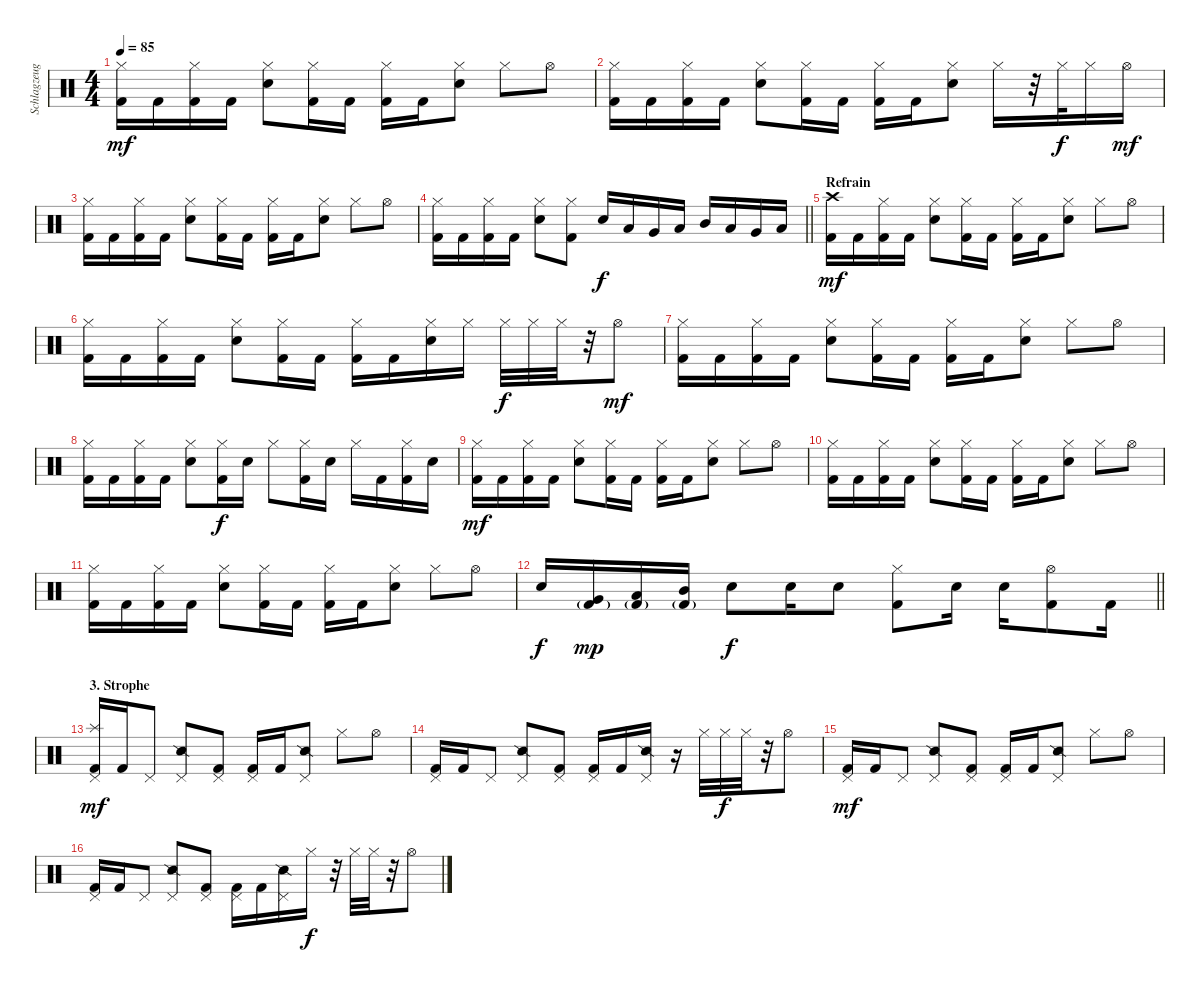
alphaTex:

\track ("Schlagzeug" "Schlagzeug") {instrument percussion}
\staff {score}
\articulation defaults
\ts (4 4)
\tempo 85
\clef neutral
\ks c
("Hi-Hat (closed)" "Kick (hit) 2").16{dy mf} "Kick (hit) 2".16 ("Hi-Hat (closed)" "Kick (hit) 2").16 "Kick (hit) 2".16 ("Hi-Hat (closed)" "Snare (hit) 2").8 ("Hi-Hat (closed)" "Kick (hit) 2").16 "Kick (hit) 2".16 ("Hi-Hat (closed)" "Kick (hit) 2").16 "Kick (hit) 2".16 ("Hi-Hat (closed)" "Snare (hit) 2").8 "Hi-Hat (closed)".8 "Hi-Hat (open)".8 |
("Hi-Hat (closed)" "Kick (hit) 2").16 "Kick (hit) 2".16 ("Hi-Hat (closed)" "Kick (hit) 2").16 "Kick (hit) 2".16 ("Hi-Hat (closed)" "Snare (hit) 2").8 ("Hi-Hat (closed)" "Kick (hit) 2").16 "Kick (hit) 2".16 ("Hi-Hat (closed)" "Kick (hit) 2").16 "Kick (hit) 2".16 ("Hi-Hat (closed)" "Snare (hit) 2").8 "Hi-Hat (closed)".16 r.32 "Hi-Hat (closed)".32{dy f} "Hi-Hat (closed)".16 "Hi-Hat (open)".16{dy mf} |
("Hi-Hat (closed)" "Kick (hit) 2").16 "Kick (hit) 2".16 ("Hi-Hat (closed)" "Kick (hit) 2").16 "Kick (hit) 2".16 ("Hi-Hat (closed)" "Snare (hit) 2").8 ("Hi-Hat (closed)" "Kick (hit) 2").16 "Kick (hit) 2".16 ("Hi-Hat (closed)" "Kick (hit) 2").16 "Kick (hit) 2".16 ("Hi-Hat (closed)" "Snare (hit) 2").8 "Hi-Hat (closed)".8 "Hi-Hat (open)".8 |
\barLineRight lightlight
("Hi-Hat (closed)" "Kick (hit) 2").16 "Kick (hit) 2".16 ("Hi-Hat (closed)" "Kick (hit) 2").16 "Kick (hit) 2".16 ("Hi-Hat (closed)" "Snare (hit) 2").8 ("Hi-Hat (closed)" "Kick (hit) 2").8 "Snare (hit) 2".16{dy f} "Low Tom (hit)".16 "Very Low Tom (hit)".16 "Low Floor Tom (hit)".16 "Mid Tom (hit)".16 "Low Tom (hit)".16 "Very Low Tom (hit)".16 "Low Floor Tom (hit)".16 |
\section ("" "Refrain")
("Crash high (hit)" "Kick (hit) 2").16{dy mf} "Kick (hit) 2".16 ("Hi-Hat (closed)" "Kick (hit) 2").16 "Kick (hit) 2".16 ("Hi-Hat (closed)" "Snare (hit) 2").8 ("Hi-Hat (closed)" "Kick (hit) 2").16 "Kick (hit) 2".16 ("Hi-Hat (closed)" "Kick (hit) 2").16 "Kick (hit) 2".16 ("Hi-Hat (closed)" "Snare (hit) 2").8 "Hi-Hat (closed)".8 "Hi-Hat (open)".8 |
("Hi-Hat (closed)" "Kick (hit) 2").16 "Kick (hit) 2".16 ("Hi-Hat (closed)" "Kick (hit) 2").16 "Kick (hit) 2".16 ("Hi-Hat (closed)" "Snare (hit) 2").8 ("Hi-Hat (closed)" "Kick (hit) 2").16 "Kick (hit) 2".16 ("Hi-Hat (closed)" "Kick (hit) 2").16 "Kick (hit) 2".16 ("Hi-Hat (closed)" "Snare (hit) 2").16 "Hi-Hat (closed)".16 "Hi-Hat (closed)".32{dy f} "Hi-Hat (closed)".32 "Hi-Hat (closed)".32 r.32 "Hi-Hat (open)".8{dy mf} |
("Hi-Hat (closed)" "Kick (hit) 2").16 "Kick (hit) 2".16 ("Hi-Hat (closed)" "Kick (hit) 2").16 "Kick (hit) 2".16 ("Hi-Hat (closed)" "Snare (hit) 2").8 ("Hi-Hat (closed)" "Kick (hit) 2").16 "Kick (hit) 2".16 ("Hi-Hat (closed)" "Kick (hit) 2").16 "Kick (hit) 2".16 ("Hi-Hat (closed)" "Snare (hit) 2").8 "Hi-Hat (closed)".8 "Hi-Hat (open)".8 |
("Hi-Hat (closed)" "Kick (hit) 2").16 "Kick (hit) 2".16 ("Hi-Hat (closed)" "Kick (hit) 2").16 "Kick (hit) 2".16 ("Hi-Hat (closed)" "Snare (hit) 2").8 ("Hi-Hat (closed)" "Kick (hit) 2").16{dy f} "Snare (hit) 2".16 "Hi-Hat (closed)".8 ("Hi-Hat (closed)" "Kick (hit) 2").16 "Snare (hit) 2".16 "Hi-Hat (closed)".16 "Kick (hit) 2".16 ("Hi-Hat (closed)" "Kick (hit) 2").16 "Snare (hit) 2".16 |
("Hi-Hat (closed)" "Kick (hit) 2").16{dy mf} "Kick (hit) 2".16 ("Hi-Hat (closed)" "Kick (hit) 2").16 "Kick (hit) 2".16 ("Hi-Hat (closed)" "Snare (hit) 2").8 ("Hi-Hat (closed)" "Kick (hit) 2").16 "Kick (hit) 2".16 ("Hi-Hat (closed)" "Kick (hit) 2").16 "Kick (hit) 2".16 ("Hi-Hat (closed)" "Snare (hit) 2").8 "Hi-Hat (closed)".8 "Hi-Hat (open)".8 |
("Hi-Hat (closed)" "Kick (hit) 2").16 "Kick (hit) 2".16 ("Hi-Hat (closed)" "Kick (hit) 2").16 "Kick (hit) 2".16 ("Hi-Hat (closed)" "Snare (hit) 2").8 ("Hi-Hat (closed)" "Kick (hit) 2").16 "Kick (hit) 2".16 ("Hi-Hat (closed)" "Kick (hit) 2").16 "Kick (hit) 2".16 ("Hi-Hat (closed)" "Snare (hit) 2").8 "Hi-Hat (closed)".8 "Hi-Hat (open)".8 |
("Hi-Hat (closed)" "Kick (hit) 2").16 "Kick (hit) 2".16 ("Hi-Hat (closed)" "Kick (hit) 2").16 "Kick (hit) 2".16 ("Hi-Hat (closed)" "Snare (hit) 2").8 ("Hi-Hat (closed)" "Kick (hit) 2").16 "Kick (hit) 2".16 ("Hi-Hat (closed)" "Kick (hit) 2").16 "Kick (hit) 2".16 ("Hi-Hat (closed)" "Snare (hit) 2").8 "Hi-Hat (closed)".8 "Hi-Hat (open)".8 |
\barLineRight lightlight "Snare (hit) 2".16{dy f}
("Very Low Tom (hit)" "Kick (hit) 2"{g}).16{dy mp} ("Low Tom (hit)" "Kick (hit) 2"{g}).16 ("Mid Tom (hit)" "Kick (hit) 2"{g}).16 "Snare (hit) 2".8{dy f} "Snare (hit) 2".16 "Snare (hit) 2".8 ("Hi-Hat (closed)" "Kick (hit) 2").8 "Snare (hit) 2".16 "Snare (hit) 2".16 ("Hi-Hat (open)" "Kick (hit) 2").8 "Kick (hit) 2".16 |
\section ("" "3. Strophe")
("Splash (hit)" "Pedal Hi-Hat (hit)" "Kick (hit) 2").16{dy mf} "Kick (hit) 2".16 "Pedal Hi-Hat (hit)".8 ("Pedal Hi-Hat (hit)" "Snare (side stick) 2").8 ("Pedal Hi-Hat (hit)" "Kick (hit) 2").8 ("Pedal Hi-Hat (hit)" "Kick (hit) 2").16 "Kick (hit) 2".16 ("Pedal Hi-Hat (hit)" "Snare (side stick) 2").8 "Hi-Hat (closed)".8 "Hi-Hat (open)".8 |
("Pedal Hi-Hat (hit)" "Kick (hit) 2").16 "Kick (hit) 2".16 "Pedal Hi-Hat (hit)".8 ("Pedal Hi-Hat (hit)" "Snare (side stick) 2").8 ("Pedal Hi-Hat (hit)" "Kick (hit) 2").8 ("Pedal Hi-Hat (hit)" "Kick (hit) 2").16 "Kick (hit) 2".16 ("Pedal Hi-Hat (hit)" "Snare (side stick) 2").16 r.16 "Hi-Hat (closed)".32 "Hi-Hat (closed)".32{dy f} "Hi-Hat (closed)".32 r.32 "Hi-Hat (open)".8 |
("Pedal Hi-Hat (hit)" "Kick (hit) 2").16{dy mf} "Kick (hit) 2".16 "Pedal Hi-Hat (hit)".8 ("Pedal Hi-Hat (hit)" "Snare (side stick) 2").8 ("Pedal Hi-Hat (hit)" "Kick (hit) 2").8 ("Pedal Hi-Hat (hit)" "Kick (hit) 2").16 "Kick (hit) 2".16 ("Pedal Hi-Hat (hit)" "Snare (side stick) 2").8 "Hi-Hat (closed)".8 "Hi-Hat (open)".8 |
("Pedal Hi-Hat (hit)" "Kick (hit) 2").16 "Kick (hit) 2".16 "Pedal Hi-Hat (hit)".8 ("Pedal Hi-Hat (hit)" "Snare (side stick) 2").8 ("Pedal Hi-Hat (hit)" "Kick (hit) 2").8 ("Pedal Hi-Hat (hit)" "Kick (hit) 2").16 "Kick (hit) 2".16 ("Pedal Hi-Hat (hit)" "Snare (side stick) 2").16 "Hi-Hat (closed)".16{dy f} r.32 "Hi-Hat (closed)".32 "Hi-Hat (closed)".32 r.32 "Hi-Hat (open)".8
